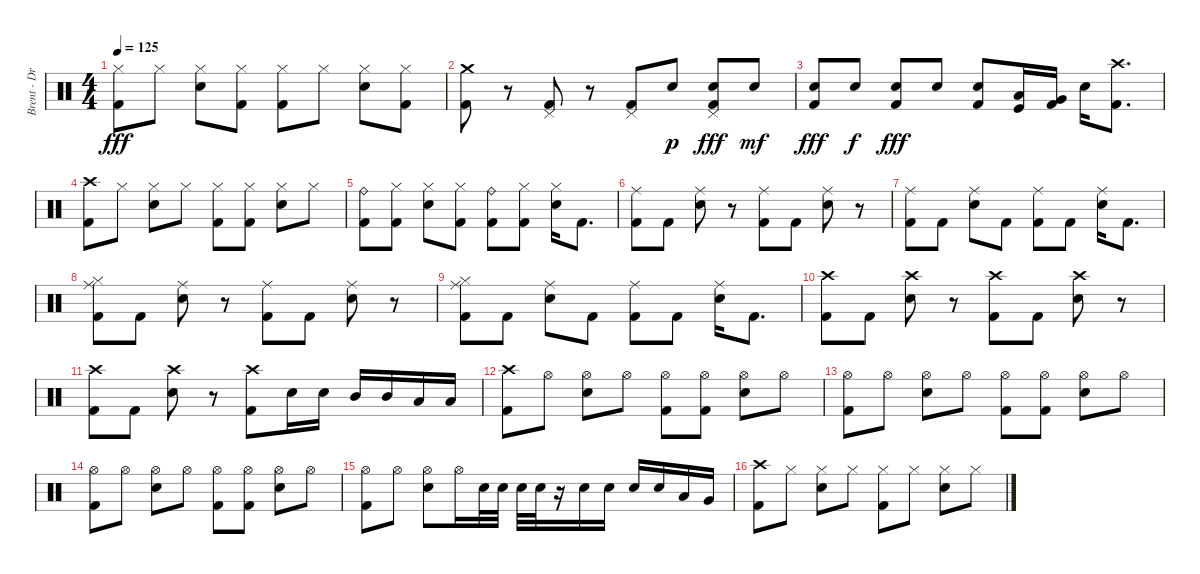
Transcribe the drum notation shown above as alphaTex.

\track ("Brent - Drums" "Brent - Dr") {instrument percussion}
\staff {score}
\articulation defaults
\ts (4 4)
\tempo 125
\clef neutral
\ks c
("Hi-Hat (closed)" "Kick (hit) 2").8{dy fff} "Hi-Hat (closed)".8 ("Hi-Hat (closed)" "Snare (hit) 2").8 ("Hi-Hat (closed)" "Kick (hit) 2").8 ("Hi-Hat (closed)" "Kick (hit) 2").8 "Hi-Hat (closed)".8 ("Hi-Hat (closed)" "Snare (hit) 2").8 ("Hi-Hat (closed)" "Kick (hit) 2").8 |
("Crash medium (hit)" "Kick (hit) 2").8 r.8 ("Pedal Hi-Hat (hit)" "Kick (hit) 2").8 r.8 ("Pedal Hi-Hat (hit)" "Kick (hit) 2").8 "Snare (hit) 2".8{dy p} ("Pedal Hi-Hat (hit)" "Snare (hit) 2" "Kick (hit) 2").8{dy fff} "Snare (hit) 2".8{dy mf} |
("Snare (hit) 2" "Kick (hit) 2").8{dy fff} "Snare (hit) 2".8{dy f} ("Snare (hit) 2" "Kick (hit) 2").8{dy fff} "Snare (hit) 2".8 ("Snare (hit) 2" "Kick (hit) 2").8 ("Low Tom (hit)" "Kick (hit)").16 ("Very Low Tom (hit)" "Kick (hit) 2").16 "Snare (hit) 2".16 ("Crash high (hit)" "Kick (hit) 2").8{d} |
("Crash high (hit)" "Kick (hit) 2").8 "Hi-Hat (closed)".8 ("Hi-Hat (closed)" "Snare (hit) 2").8 "Hi-Hat (closed)".8 ("Hi-Hat (closed)" "Kick (hit) 2").8 ("Hi-Hat (closed)" "Kick (hit) 2").8 ("Hi-Hat (closed)" "Snare (hit) 2").8 "Hi-Hat (closed)".8 |
("Ride (bell)" "Kick (hit) 2").8 ("Hi-Hat (closed)" "Kick (hit) 2").8 ("Hi-Hat (closed)" "Snare (hit) 2").8 ("Hi-Hat (closed)" "Kick (hit) 2").8 ("Ride (bell)" "Kick (hit) 2").8 ("Hi-Hat (closed)" "Kick (hit) 2").8 ("Hi-Hat (closed)" "Snare (hit) 2").16 "Kick (hit) 2".8{d} |
("Ride (middle)" "Kick (hit) 2").8 "Kick (hit) 2".8 ("Ride (middle)" "Snare (hit) 2").8 r.8 ("Ride (middle)" "Kick (hit) 2").8 "Kick (hit) 2".8 ("Ride (middle)" "Snare (hit) 2").8 r.8 |
("Ride (middle)" "Kick (hit) 2").8 "Kick (hit) 2".8 ("Ride (middle)" "Snare (hit) 2").8 "Kick (hit) 2".8 ("Ride (middle)" "Kick (hit) 2").8 "Kick (hit) 2".8 ("Ride (middle)" "Snare (hit) 2").16 "Kick (hit) 2".8{d} |
("Ride (middle)" "Hi-Hat (closed)" "Kick (hit) 2").8 "Kick (hit) 2".8 ("Ride (middle)" "Snare (hit) 2").8 r.8 ("Ride (middle)" "Kick (hit) 2").8 "Kick (hit) 2".8 ("Ride (middle)" "Snare (hit) 2").8 r.8 |
("Ride (middle)" "Hi-Hat (closed)" "Kick (hit) 2").8 "Kick (hit) 2".8 ("Ride (middle)" "Snare (hit) 2").8 "Kick (hit) 2".8 ("Ride (middle)" "Kick (hit) 2").8 "Kick (hit) 2".8 ("Ride (middle)" "Snare (hit) 2").16 "Kick (hit) 2".8{d} |
("Crash high (hit)" "Kick (hit) 2").8 "Kick (hit) 2".8 ("Crash high (hit)" "Snare (hit) 2").8 r.8 ("Crash high (hit)" "Kick (hit) 2").8 "Kick (hit) 2".8 ("Crash high (hit)" "Snare (hit) 2").8 r.8 |
("Crash high (hit)" "Kick (hit) 2").8 "Kick (hit) 2".8 ("Crash high (hit)" "Snare (hit) 2").8 r.8 ("Crash high (hit)" "Kick (hit) 2").8 "Snare (hit) 2".16 "Snare (hit) 2".16 "Mid Tom (hit)".16 "Mid Tom (hit)".16 "Low Tom (hit)".16 "Low Tom (hit)".16 |
("Crash high (hit)" "Kick (hit) 2").8 "Hi-Hat (open)".8 ("Hi-Hat (open)" "Snare (hit) 2").8 "Hi-Hat (open)".8 ("Hi-Hat (open)" "Kick (hit) 2").8 ("Hi-Hat (open)" "Kick (hit) 2").8 ("Hi-Hat (open)" "Snare (hit) 2").8 "Hi-Hat (open)".8 |
("Hi-Hat (open)" "Kick (hit) 2").8 "Hi-Hat (open)".8 ("Hi-Hat (open)" "Snare (hit) 2").8 "Hi-Hat (open)".8 ("Hi-Hat (open)" "Kick (hit) 2").8 ("Hi-Hat (open)" "Kick (hit) 2").8 ("Hi-Hat (open)" "Snare (hit) 2").8 "Hi-Hat (open)".8 |
("Hi-Hat (open)" "Kick (hit) 2").8 "Hi-Hat (open)".8 ("Hi-Hat (open)" "Snare (hit) 2").8 "Hi-Hat (open)".8 ("Hi-Hat (open)" "Kick (hit) 2").8 ("Hi-Hat (open)" "Kick (hit) 2").8 ("Hi-Hat (open)" "Snare (hit) 2").8 "Hi-Hat (open)".8 |
("Hi-Hat (open)" "Kick (hit) 2").8 "Hi-Hat (open)".8 ("Hi-Hat (open)" "Snare (hit) 2").8 "Hi-Hat (open)".16 "Snare (hit) 2".32 "Snare (hit) 2".32 "Snare (hit) 2".32 "Snare (hit) 2".32 r.16 "Snare (hit) 2".16 "Snare (hit) 2".16 "Snare (hit) 2".16 "Snare (hit) 2".16 "Low Tom (hit)".16 "Very Low Tom (hit)".16 |
("Crash high (hit)" "Kick (hit) 2").8 "Hi-Hat (closed)".8 ("Hi-Hat (closed)" "Snare (hit) 2").8 "Hi-Hat (closed)".8 ("Hi-Hat (closed)" "Kick (hit) 2").8 "Hi-Hat (closed)".8 ("Hi-Hat (closed)" "Snare (hit) 2").8 "Hi-Hat (closed)".8
